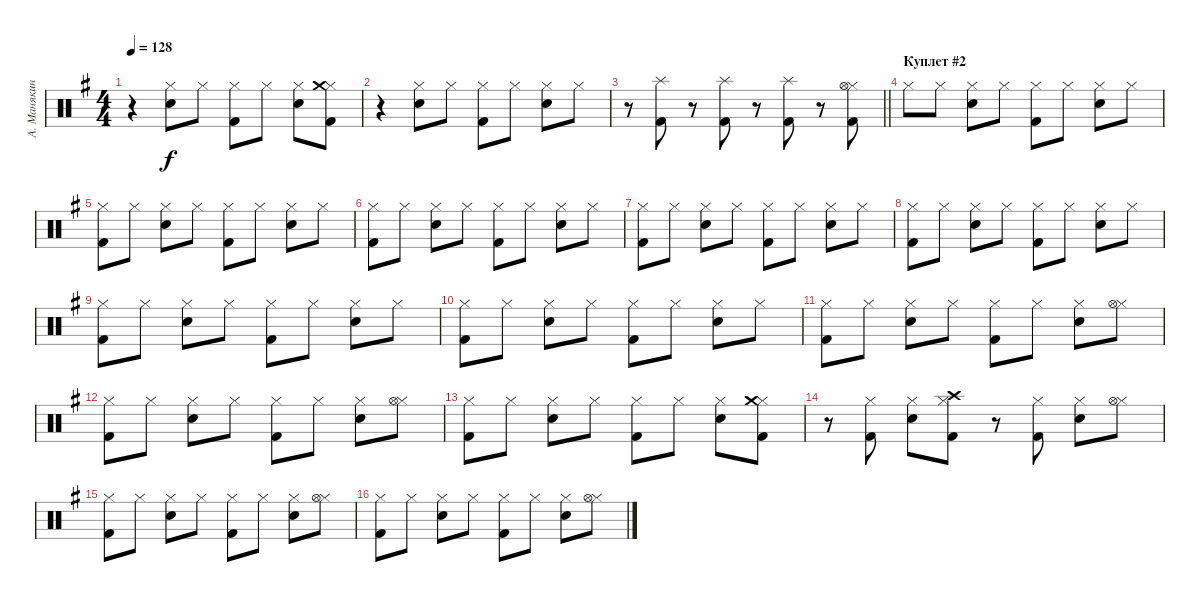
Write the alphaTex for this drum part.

\track ("А. Манякин" "А. Манякин") {instrument percussion}
\staff {score}
\articulation defaults
\ts (4 4)
\tempo 128
\clef neutral
\ks g
r.4{dy f} ("Electric Snare (hit)" "Hi-Hat (closed)").8 "Hi-Hat (closed)".8 ("Kick (hit) 2" "Hi-Hat (closed)").8 "Hi-Hat (closed)".8 ("Electric Snare (hit)" "Hi-Hat (closed)").8 ("Kick (hit) 2" "Hi-Hat (closed)" "Crash medium (hit)").8 |
r.4 ("Electric Snare (hit)" "Hi-Hat (closed)").8 "Hi-Hat (closed)".8 ("Kick (hit) 2" "Hi-Hat (closed)").8 "Hi-Hat (closed)".8 ("Electric Snare (hit)" "Hi-Hat (closed)").8 "Hi-Hat (closed)".8 |
\barLineRight lightlight
r.8 ("Kick (hit) 2" "Splash (hit)").8 r.8 ("Kick (hit) 2" "Splash (hit)").8 r.8 ("Kick (hit) 2" "Splash (hit)").8 r.8 ("Kick (hit) 2" "Hi-Hat (closed)" "Hi-Hat (open)").8 |
\section ("" "Куплет #2")
"Hi-Hat (closed)".8 "Hi-Hat (closed)".8 ("Electric Snare (hit)" "Hi-Hat (closed)").8 "Hi-Hat (closed)".8 ("Kick (hit) 2" "Hi-Hat (closed)").8 "Hi-Hat (closed)".8 ("Electric Snare (hit)" "Hi-Hat (closed)").8 "Hi-Hat (closed)".8 |
("Kick (hit) 2" "Hi-Hat (closed)").8 "Hi-Hat (closed)".8 ("Electric Snare (hit)" "Hi-Hat (closed)").8 "Hi-Hat (closed)".8 ("Kick (hit) 2" "Hi-Hat (closed)").8 "Hi-Hat (closed)".8 ("Electric Snare (hit)" "Hi-Hat (closed)").8 "Hi-Hat (closed)".8 |
("Kick (hit) 2" "Hi-Hat (closed)").8 "Hi-Hat (closed)".8 ("Electric Snare (hit)" "Hi-Hat (closed)").8 "Hi-Hat (closed)".8 ("Kick (hit) 2" "Hi-Hat (closed)").8 "Hi-Hat (closed)".8 ("Electric Snare (hit)" "Hi-Hat (closed)").8 "Hi-Hat (closed)".8 |
("Kick (hit) 2" "Hi-Hat (closed)").8 "Hi-Hat (closed)".8 ("Electric Snare (hit)" "Hi-Hat (closed)").8 "Hi-Hat (closed)".8 ("Kick (hit) 2" "Hi-Hat (closed)").8 "Hi-Hat (closed)".8 ("Electric Snare (hit)" "Hi-Hat (closed)").8 "Hi-Hat (closed)".8 |
("Kick (hit) 2" "Hi-Hat (closed)").8 "Hi-Hat (closed)".8 ("Electric Snare (hit)" "Hi-Hat (closed)").8 "Hi-Hat (closed)".8 ("Kick (hit) 2" "Hi-Hat (closed)").8 "Hi-Hat (closed)".8 ("Electric Snare (hit)" "Hi-Hat (closed)").8 "Hi-Hat (closed)".8 |
("Kick (hit) 2" "Hi-Hat (closed)").8 "Hi-Hat (closed)".8 ("Electric Snare (hit)" "Hi-Hat (closed)").8 "Hi-Hat (closed)".8 ("Kick (hit) 2" "Hi-Hat (closed)").8 "Hi-Hat (closed)".8 ("Electric Snare (hit)" "Hi-Hat (closed)").8 "Hi-Hat (closed)".8 |
("Kick (hit) 2" "Hi-Hat (closed)").8 "Hi-Hat (closed)".8 ("Electric Snare (hit)" "Hi-Hat (closed)").8 "Hi-Hat (closed)".8 ("Kick (hit) 2" "Hi-Hat (closed)").8 "Hi-Hat (closed)".8 ("Electric Snare (hit)" "Hi-Hat (closed)").8 "Hi-Hat (closed)".8 |
("Kick (hit) 2" "Hi-Hat (closed)").8 "Hi-Hat (closed)".8 ("Electric Snare (hit)" "Hi-Hat (closed)").8 "Hi-Hat (closed)".8 ("Kick (hit) 2" "Hi-Hat (closed)").8 "Hi-Hat (closed)".8 ("Electric Snare (hit)" "Hi-Hat (closed)").8 ("Hi-Hat (closed)" "Hi-Hat (open)").8 |
("Kick (hit) 2" "Hi-Hat (closed)").8 "Hi-Hat (closed)".8 ("Electric Snare (hit)" "Hi-Hat (closed)").8 "Hi-Hat (closed)".8 ("Kick (hit) 2" "Hi-Hat (closed)").8 "Hi-Hat (closed)".8 ("Electric Snare (hit)" "Hi-Hat (closed)").8 ("Hi-Hat (closed)" "Hi-Hat (open)").8 |
("Kick (hit) 2" "Hi-Hat (closed)").8 "Hi-Hat (closed)".8 ("Electric Snare (hit)" "Hi-Hat (closed)").8 "Hi-Hat (closed)".8 ("Kick (hit) 2" "Hi-Hat (closed)").8 "Hi-Hat (closed)".8 ("Electric Snare (hit)" "Hi-Hat (closed)").8 ("Kick (hit) 2" "Hi-Hat (closed)" "Crash medium (hit)").8 |
r.8 ("Kick (hit) 2" "Hi-Hat (closed)").8 ("Electric Snare (hit)" "Hi-Hat (closed)").8 ("Kick (hit) 2" "Hi-Hat (closed)" "Crash high (hit)").8 r.8 ("Kick (hit) 2" "Hi-Hat (closed)").8 ("Electric Snare (hit)" "Hi-Hat (closed)").8 ("Hi-Hat (closed)" "Hi-Hat (open)").8 |
("Kick (hit) 2" "Hi-Hat (closed)").8 "Hi-Hat (closed)".8 ("Electric Snare (hit)" "Hi-Hat (closed)").8 "Hi-Hat (closed)".8 ("Kick (hit) 2" "Hi-Hat (closed)").8 "Hi-Hat (closed)".8 ("Electric Snare (hit)" "Hi-Hat (closed)").8 ("Hi-Hat (closed)" "Hi-Hat (open)").8 |
("Kick (hit) 2" "Hi-Hat (closed)").8 "Hi-Hat (closed)".8 ("Electric Snare (hit)" "Hi-Hat (closed)").8 "Hi-Hat (closed)".8 ("Kick (hit) 2" "Hi-Hat (closed)").8 "Hi-Hat (closed)".8 ("Electric Snare (hit)" "Hi-Hat (closed)").8 ("Hi-Hat (closed)" "Hi-Hat (open)").8
